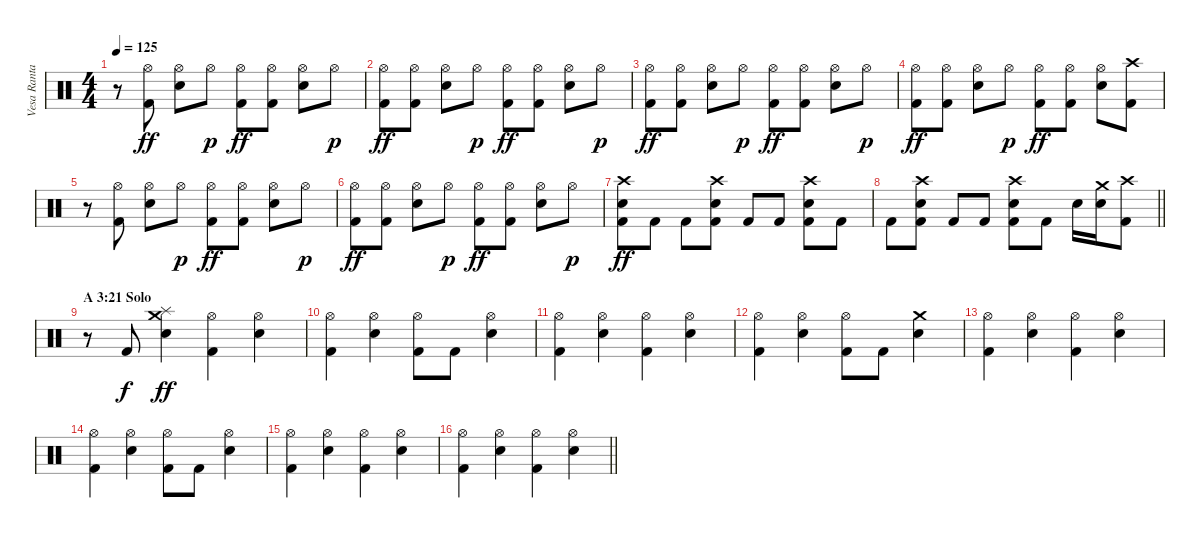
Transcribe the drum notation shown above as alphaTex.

\track ("Vesa Ranta (drums)" "Vesa Ranta") {instrument percussion}
\staff {score}
\articulation defaults
\ts (4 4)
\tempo 125
\clef neutral
\ks c
r.8{dy ff} ("Hi-Hat (open)" "Kick (hit) 2").8 ("Hi-Hat (open)" "Electric Snare (hit)").8 "Hi-Hat (open)".8{dy p} ("Hi-Hat (open)" "Kick (hit) 2").8{dy ff} ("Hi-Hat (open)" "Kick (hit) 2").8 ("Hi-Hat (open)" "Electric Snare (hit)").8 "Hi-Hat (open)".8{dy p} |
("Hi-Hat (open)" "Kick (hit) 2").8{dy ff} ("Hi-Hat (open)" "Kick (hit) 2").8 ("Hi-Hat (open)" "Electric Snare (hit)").8 "Hi-Hat (open)".8{dy p} ("Hi-Hat (open)" "Kick (hit) 2").8{dy ff} ("Hi-Hat (open)" "Kick (hit) 2").8 ("Hi-Hat (open)" "Electric Snare (hit)").8 "Hi-Hat (open)".8{dy p} |
("Hi-Hat (open)" "Kick (hit) 2").8{dy ff} ("Hi-Hat (open)" "Kick (hit) 2").8 ("Hi-Hat (open)" "Electric Snare (hit)").8 "Hi-Hat (open)".8{dy p} ("Hi-Hat (open)" "Kick (hit) 2").8{dy ff} ("Hi-Hat (open)" "Kick (hit) 2").8 ("Hi-Hat (open)" "Electric Snare (hit)").8 "Hi-Hat (open)".8{dy p} |
("Hi-Hat (open)" "Kick (hit) 2").8{dy ff} ("Hi-Hat (open)" "Kick (hit) 2").8 ("Hi-Hat (open)" "Electric Snare (hit)").8 "Hi-Hat (open)".8{dy p} ("Hi-Hat (open)" "Kick (hit) 2").8{dy ff} ("Hi-Hat (open)" "Kick (hit) 2").8 ("Hi-Hat (open)" "Electric Snare (hit)").8 ("Crash high (hit)" "Kick (hit) 2").8 |
r.8 ("Hi-Hat (open)" "Kick (hit) 2").8 ("Hi-Hat (open)" "Electric Snare (hit)").8 "Hi-Hat (open)".8{dy p} ("Hi-Hat (open)" "Kick (hit) 2").8{dy ff} ("Hi-Hat (open)" "Kick (hit) 2").8 ("Hi-Hat (open)" "Electric Snare (hit)").8 "Hi-Hat (open)".8{dy p} |
("Hi-Hat (open)" "Kick (hit) 2").8{dy ff} ("Hi-Hat (open)" "Kick (hit) 2").8 ("Hi-Hat (open)" "Electric Snare (hit)").8 "Hi-Hat (open)".8{dy p} ("Hi-Hat (open)" "Kick (hit) 2").8{dy ff} ("Hi-Hat (open)" "Kick (hit) 2").8 ("Hi-Hat (open)" "Electric Snare (hit)").8 "Hi-Hat (open)".8{dy p} |
("Crash high (hit)" "Electric Snare (hit)" "Kick (hit) 2").8{dy ff} "Kick (hit) 2".8 "Kick (hit) 2".8 ("Crash high (hit)" "Electric Snare (hit)" "Kick (hit) 2").8 "Kick (hit) 2".8 "Kick (hit) 2".8 ("Crash high (hit)" "Electric Snare (hit)" "Kick (hit) 2").8 "Kick (hit) 2".8 |
\barLineRight lightlight "Kick (hit) 2".8
("Crash high (hit)" "Electric Snare (hit)" "Kick (hit) 2").8 "Kick (hit) 2".8 "Kick (hit) 2".8 ("Crash high (hit)" "Electric Snare (hit)" "Kick (hit) 2").8 "Kick (hit) 2".8 "Electric Snare (hit)".16 ("Crash medium (hit)" "Electric Snare (hit)").16 ("Crash high (hit)" "Kick (hit) 2").8 |
\section ("" "A 3:21 Solo")
r.8 "Kick (hit) 2".8{dy f} ("Splash (hit)" "Crash medium (hit)" "Electric Snare (hit)").4{dy ff} ("Hi-Hat (open)" "Kick (hit) 2").4 ("Hi-Hat (open)" "Electric Snare (hit)").4 |
("Hi-Hat (open)" "Kick (hit) 2").4 ("Hi-Hat (open)" "Electric Snare (hit)").4 ("Hi-Hat (open)" "Kick (hit) 2").8 "Kick (hit) 2".8 ("Hi-Hat (open)" "Electric Snare (hit)").4 |
("Hi-Hat (open)" "Kick (hit) 2").4 ("Hi-Hat (open)" "Electric Snare (hit)").4 ("Hi-Hat (open)" "Kick (hit) 2").4 ("Hi-Hat (open)" "Electric Snare (hit)").4 |
("Hi-Hat (open)" "Kick (hit) 2").4 ("Hi-Hat (open)" "Electric Snare (hit)").4 ("Hi-Hat (open)" "Kick (hit) 2").8 "Kick (hit) 2".8 ("Crash medium (hit)" "Electric Snare (hit)").4 |
("Hi-Hat (open)" "Kick (hit) 2").4 ("Hi-Hat (open)" "Electric Snare (hit)").4 ("Hi-Hat (open)" "Kick (hit) 2").4 ("Hi-Hat (open)" "Electric Snare (hit)").4 |
("Hi-Hat (open)" "Kick (hit) 2").4 ("Hi-Hat (open)" "Electric Snare (hit)").4 ("Hi-Hat (open)" "Kick (hit) 2").8 "Kick (hit) 2".8 ("Hi-Hat (open)" "Electric Snare (hit)").4 |
("Hi-Hat (open)" "Kick (hit) 2").4 ("Hi-Hat (open)" "Electric Snare (hit)").4 ("Hi-Hat (open)" "Kick (hit) 2").4 ("Hi-Hat (open)" "Electric Snare (hit)").4 |
\barLineRight lightlight
("Hi-Hat (open)" "Kick (hit) 2").4 ("Hi-Hat (open)" "Electric Snare (hit)").4 ("Hi-Hat (open)" "Kick (hit) 2").4 ("Hi-Hat (open)" "Electric Snare (hit)").4
